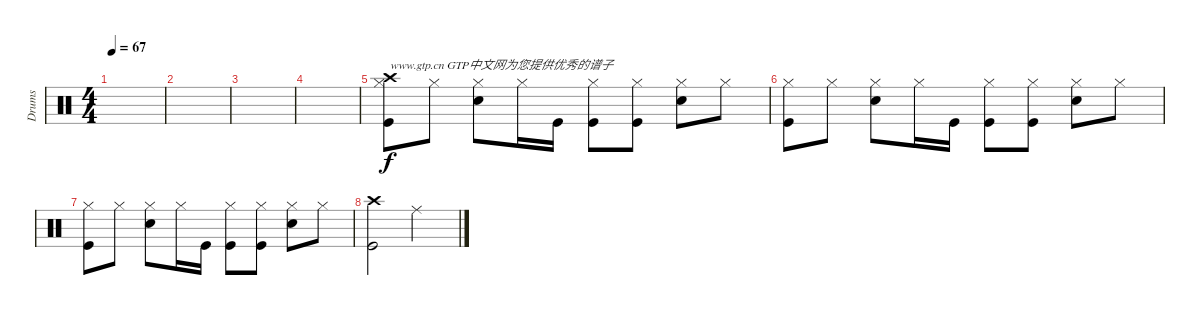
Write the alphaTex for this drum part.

\track ("Drums" "Drums") {instrument percussion}
\staff {score}
\articulation defaults
\ts (4 4)
\tempo 67
\clef neutral
\ks c
|
|
|
|
("Crash high (hit)" "Hi-Hat (closed)" "Kick (hit)").8{txt "www.gtp.cn GTP中文网为您提供优秀的谱子"} "Hi-Hat (closed)".8 ("Hi-Hat (closed)" "Electric Snare (hit)").8 "Hi-Hat (closed)".16 "Kick (hit)".16 ("Hi-Hat (closed)" "Kick (hit)").8 ("Hi-Hat (closed)" "Kick (hit)").8 ("Hi-Hat (closed)" "Electric Snare (hit)").8 "Hi-Hat (closed)".8 |
("Hi-Hat (closed)" "Kick (hit)").8 "Hi-Hat (closed)".8 ("Hi-Hat (closed)" "Electric Snare (hit)").8 "Hi-Hat (closed)".16 "Kick (hit)".16 ("Hi-Hat (closed)" "Kick (hit)").8 ("Hi-Hat (closed)" "Kick (hit)").8 ("Hi-Hat (closed)" "Electric Snare (hit)").8 "Hi-Hat (closed)".8 |
("Hi-Hat (closed)" "Kick (hit)").8 "Hi-Hat (closed)".8 ("Hi-Hat (closed)" "Electric Snare (hit)").8 "Hi-Hat (closed)".16 "Kick (hit)".16 ("Hi-Hat (closed)" "Kick (hit)").8 ("Hi-Hat (closed)" "Kick (hit)").8 ("Hi-Hat (closed)" "Electric Snare (hit)").8 "Hi-Hat (closed)".8 |
("Crash high (hit)" "Kick (hit)").2 "Ride (middle)".2
